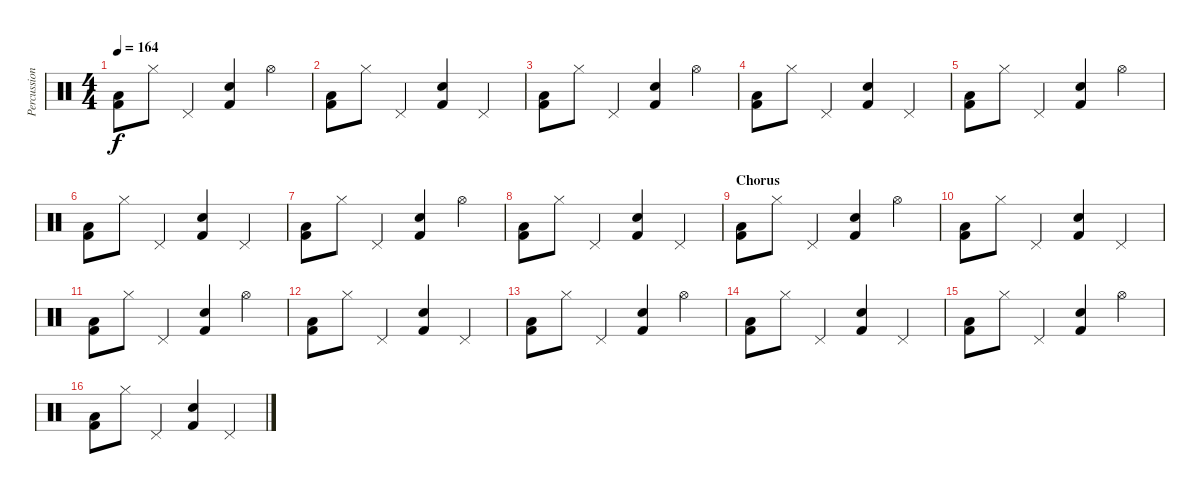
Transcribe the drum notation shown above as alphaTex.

\track ("Percussion" "Percussion") {instrument percussion}
\staff {score}
\articulation defaults
\ts (4 4)
\tempo 164
\clef neutral
\ks c
("Low Tom (hit)" "Kick (hit) 2").8{dy f} "Hi-Hat (closed)".8 "Pedal Hi-Hat (hit)".4 ("Snare (hit) 2" "Kick (hit) 2").4 "Hi-Hat (open)".4 |
("Low Tom (hit)" "Kick (hit) 2").8 "Hi-Hat (closed)".8 "Pedal Hi-Hat (hit)".4 ("Snare (hit) 2" "Kick (hit) 2").4 "Pedal Hi-Hat (hit)".4 |
("Low Tom (hit)" "Kick (hit) 2").8 "Hi-Hat (closed)".8 "Pedal Hi-Hat (hit)".4 ("Snare (hit) 2" "Kick (hit) 2").4 "Hi-Hat (open)".4 |
("Low Tom (hit)" "Kick (hit) 2").8 "Hi-Hat (closed)".8 "Pedal Hi-Hat (hit)".4 ("Snare (hit) 2" "Kick (hit) 2").4 "Pedal Hi-Hat (hit)".4 |
("Low Tom (hit)" "Kick (hit) 2").8 "Hi-Hat (closed)".8 "Pedal Hi-Hat (hit)".4 ("Snare (hit) 2" "Kick (hit) 2").4 "Hi-Hat (open)".4 |
("Low Tom (hit)" "Kick (hit) 2").8 "Hi-Hat (closed)".8 "Pedal Hi-Hat (hit)".4 ("Snare (hit) 2" "Kick (hit) 2").4 "Pedal Hi-Hat (hit)".4 |
("Low Tom (hit)" "Kick (hit) 2").8 "Hi-Hat (closed)".8 "Pedal Hi-Hat (hit)".4 ("Snare (hit) 2" "Kick (hit) 2").4 "Hi-Hat (open)".4 |
("Low Tom (hit)" "Kick (hit) 2").8 "Hi-Hat (closed)".8 "Pedal Hi-Hat (hit)".4 ("Snare (hit) 2" "Kick (hit) 2").4 "Pedal Hi-Hat (hit)".4 |
\section ("" "Chorus")
("Low Tom (hit)" "Kick (hit) 2").8 "Hi-Hat (closed)".8 "Pedal Hi-Hat (hit)".4 ("Snare (hit) 2" "Kick (hit) 2").4 "Hi-Hat (open)".4 |
("Low Tom (hit)" "Kick (hit) 2").8 "Hi-Hat (closed)".8 "Pedal Hi-Hat (hit)".4 ("Snare (hit) 2" "Kick (hit) 2").4 "Pedal Hi-Hat (hit)".4 |
("Low Tom (hit)" "Kick (hit) 2").8 "Hi-Hat (closed)".8 "Pedal Hi-Hat (hit)".4 ("Snare (hit) 2" "Kick (hit) 2").4 "Hi-Hat (open)".4 |
("Low Tom (hit)" "Kick (hit) 2").8 "Hi-Hat (closed)".8 "Pedal Hi-Hat (hit)".4 ("Snare (hit) 2" "Kick (hit) 2").4 "Pedal Hi-Hat (hit)".4 |
("Low Tom (hit)" "Kick (hit) 2").8 "Hi-Hat (closed)".8 "Pedal Hi-Hat (hit)".4 ("Snare (hit) 2" "Kick (hit) 2").4 "Hi-Hat (open)".4 |
("Low Tom (hit)" "Kick (hit) 2").8 "Hi-Hat (closed)".8 "Pedal Hi-Hat (hit)".4 ("Snare (hit) 2" "Kick (hit) 2").4 "Pedal Hi-Hat (hit)".4 |
("Low Tom (hit)" "Kick (hit) 2").8 "Hi-Hat (closed)".8 "Pedal Hi-Hat (hit)".4 ("Snare (hit) 2" "Kick (hit) 2").4 "Hi-Hat (open)".4 |
("Low Tom (hit)" "Kick (hit) 2").8 "Hi-Hat (closed)".8 "Pedal Hi-Hat (hit)".4 ("Snare (hit) 2" "Kick (hit) 2").4 "Pedal Hi-Hat (hit)".4
